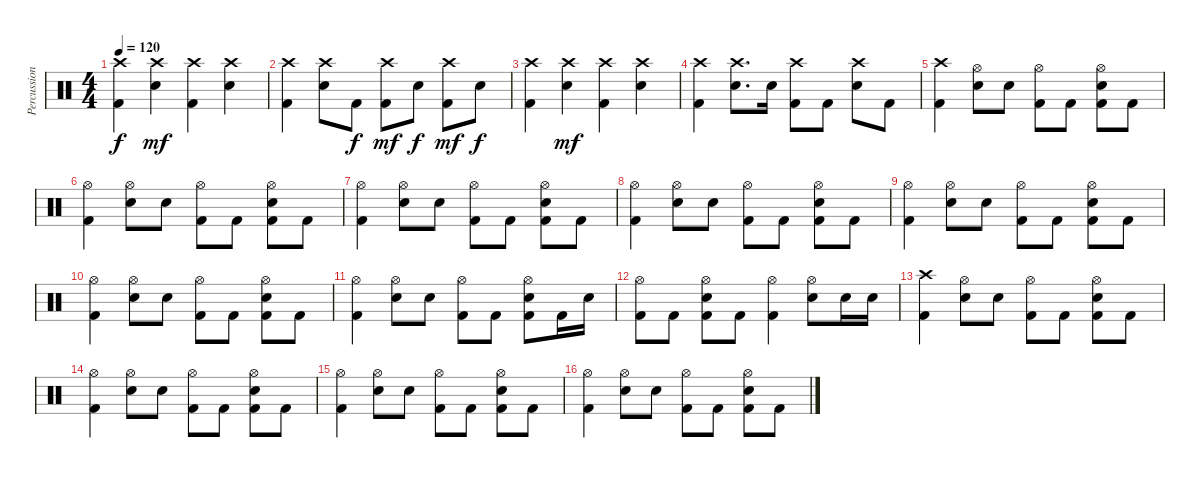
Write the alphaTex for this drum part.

\track ("Percussion" "Percussion") {instrument percussion}
\staff {score}
\articulation defaults
\ts (4 4)
\tempo 120
\clef neutral
\ks c
("Crash high (hit)" "Kick (hit) 2").4{dy f} ("Crash high (hit)" "Snare (hit) 2").4{dy mf} ("Crash high (hit)" "Kick (hit) 2").4 ("Crash high (hit)" "Snare (hit) 2").4 |
("Crash high (hit)" "Kick (hit) 2").4 ("Crash high (hit)" "Snare (hit) 2").8 "Kick (hit) 2".8{dy f} ("Crash high (hit)" "Kick (hit) 2").8{dy mf} "Snare (hit) 2".8{dy f} ("Crash high (hit)" "Kick (hit) 2").8{dy mf} "Snare (hit) 2".8{dy f} |
("Crash high (hit)" "Kick (hit) 2").4 ("Crash high (hit)" "Snare (hit) 2").4{dy mf} ("Crash high (hit)" "Kick (hit) 2").4 ("Crash high (hit)" "Snare (hit) 2").4 |
("Crash high (hit)" "Kick (hit) 2").4 ("Crash high (hit)" "Snare (hit) 2").8{d} "Snare (hit) 2".16 ("Crash high (hit)" "Kick (hit) 2").8 "Kick (hit) 2".8 ("Crash high (hit)" "Snare (hit) 2").8 "Kick (hit) 2".8 |
("Crash high (hit)" "Kick (hit) 2").4 ("Hi-Hat (open)" "Snare (hit) 2").8 "Snare (hit) 2".8 ("Hi-Hat (open)" "Kick (hit) 2").8 "Kick (hit) 2".8 ("Hi-Hat (open)" "Snare (hit) 2" "Kick (hit) 2").8 "Kick (hit) 2".8 |
("Hi-Hat (open)" "Kick (hit) 2").4 ("Hi-Hat (open)" "Snare (hit) 2").8 "Snare (hit) 2".8 ("Hi-Hat (open)" "Kick (hit) 2").8 "Kick (hit) 2".8 ("Hi-Hat (open)" "Snare (hit) 2" "Kick (hit) 2").8 "Kick (hit) 2".8 |
("Hi-Hat (open)" "Kick (hit) 2").4 ("Hi-Hat (open)" "Snare (hit) 2").8 "Snare (hit) 2".8 ("Hi-Hat (open)" "Kick (hit) 2").8 "Kick (hit) 2".8 ("Hi-Hat (open)" "Snare (hit) 2" "Kick (hit) 2").8 "Kick (hit) 2".8 |
("Hi-Hat (open)" "Kick (hit) 2").4 ("Hi-Hat (open)" "Snare (hit) 2").8 "Snare (hit) 2".8 ("Hi-Hat (open)" "Kick (hit) 2").8 "Kick (hit) 2".8 ("Hi-Hat (open)" "Snare (hit) 2" "Kick (hit) 2").8 "Kick (hit) 2".8 |
("Hi-Hat (open)" "Kick (hit) 2").4 ("Hi-Hat (open)" "Snare (hit) 2").8 "Snare (hit) 2".8 ("Hi-Hat (open)" "Kick (hit) 2").8 "Kick (hit) 2".8 ("Hi-Hat (open)" "Snare (hit) 2" "Kick (hit) 2").8 "Kick (hit) 2".8 |
("Hi-Hat (open)" "Kick (hit) 2").4 ("Hi-Hat (open)" "Snare (hit) 2").8 "Snare (hit) 2".8 ("Hi-Hat (open)" "Kick (hit) 2").8 "Kick (hit) 2".8 ("Hi-Hat (open)" "Snare (hit) 2" "Kick (hit) 2").8 "Kick (hit) 2".8 |
("Hi-Hat (open)" "Kick (hit) 2").4 ("Hi-Hat (open)" "Snare (hit) 2").8 "Snare (hit) 2".8 ("Hi-Hat (open)" "Kick (hit) 2").8 "Kick (hit) 2".8 ("Hi-Hat (open)" "Snare (hit) 2" "Kick (hit) 2").8 "Kick (hit) 2".16 "Snare (hit) 2".16 |
("Hi-Hat (open)" "Kick (hit) 2").8 "Kick (hit) 2".8 ("Hi-Hat (open)" "Snare (hit) 2" "Kick (hit) 2").8 "Kick (hit) 2".8 ("Hi-Hat (open)" "Kick (hit) 2").4 ("Hi-Hat (open)" "Snare (hit) 2").8 "Snare (hit) 2".16 "Snare (hit) 2".16 |
("Crash high (hit)" "Kick (hit) 2").4 ("Hi-Hat (open)" "Snare (hit) 2").8 "Snare (hit) 2".8 ("Hi-Hat (open)" "Kick (hit) 2").8 "Kick (hit) 2".8 ("Hi-Hat (open)" "Snare (hit) 2" "Kick (hit) 2").8 "Kick (hit) 2".8 |
("Hi-Hat (open)" "Kick (hit) 2").4 ("Hi-Hat (open)" "Snare (hit) 2").8 "Snare (hit) 2".8 ("Hi-Hat (open)" "Kick (hit) 2").8 "Kick (hit) 2".8 ("Hi-Hat (open)" "Snare (hit) 2" "Kick (hit) 2").8 "Kick (hit) 2".8 |
("Hi-Hat (open)" "Kick (hit) 2").4 ("Hi-Hat (open)" "Snare (hit) 2").8 "Snare (hit) 2".8 ("Hi-Hat (open)" "Kick (hit) 2").8 "Kick (hit) 2".8 ("Hi-Hat (open)" "Snare (hit) 2" "Kick (hit) 2").8 "Kick (hit) 2".8 |
("Hi-Hat (open)" "Kick (hit) 2").4 ("Hi-Hat (open)" "Snare (hit) 2").8 "Snare (hit) 2".8 ("Hi-Hat (open)" "Kick (hit) 2").8 "Kick (hit) 2".8 ("Hi-Hat (open)" "Snare (hit) 2" "Kick (hit) 2").8 "Kick (hit) 2".8
